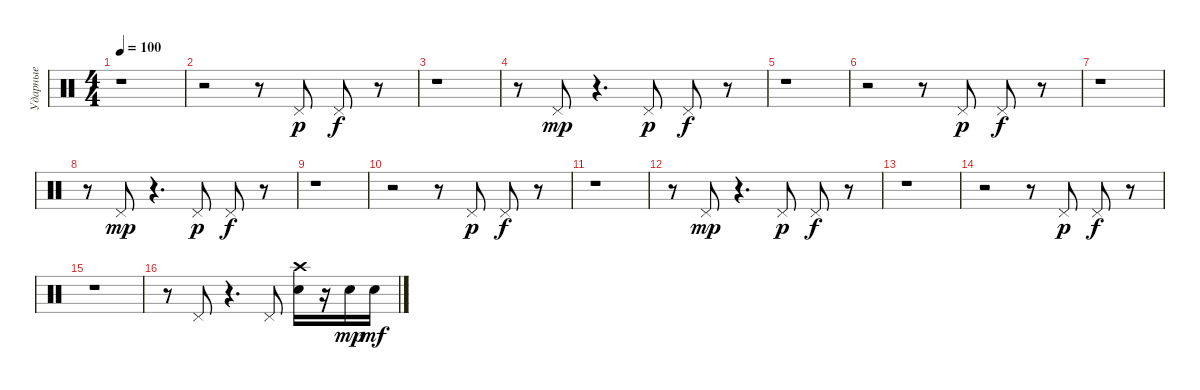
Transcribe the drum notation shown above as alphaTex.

\track ("Ударные" "Ударные") {instrument percussion}
\staff {score}
\articulation defaults
\ts (4 4)
\tempo 100
\clef neutral
\ks c
r.1{dy p} |
r.2 r.8 "Pedal Hi-Hat (hit)".8 "Pedal Hi-Hat (hit)".8{dy f} r.8 |
r.1 |
r.8 "Pedal Hi-Hat (hit)".8{dy mp} r.4{d} "Pedal Hi-Hat (hit)".8{dy p} "Pedal Hi-Hat (hit)".8{dy f} r.8 |
r.1 |
r.2 r.8 "Pedal Hi-Hat (hit)".8{dy p} "Pedal Hi-Hat (hit)".8{dy f} r.8 |
r.1 |
r.8 "Pedal Hi-Hat (hit)".8{dy mp} r.4{d} "Pedal Hi-Hat (hit)".8{dy p} "Pedal Hi-Hat (hit)".8{dy f} r.8 |
r.1 |
r.2 r.8 "Pedal Hi-Hat (hit)".8{dy p} "Pedal Hi-Hat (hit)".8{dy f} r.8 |
r.1 |
r.8 "Pedal Hi-Hat (hit)".8{dy mp} r.4{d} "Pedal Hi-Hat (hit)".8{dy p} "Pedal Hi-Hat (hit)".8{dy f} r.8 |
r.1 |
r.2 r.8 "Pedal Hi-Hat (hit)".8{dy p} "Pedal Hi-Hat (hit)".8{dy f} r.8 |
r.1 |
r.8 "Pedal Hi-Hat (hit)".8 r.4{d} "Pedal Hi-Hat (hit)".8 ("Electric Snare (hit)" "Crash high (hit)").16 r.16 "Electric Snare (hit)".16{dy mp} "Electric Snare (hit)".16{dy mf}
